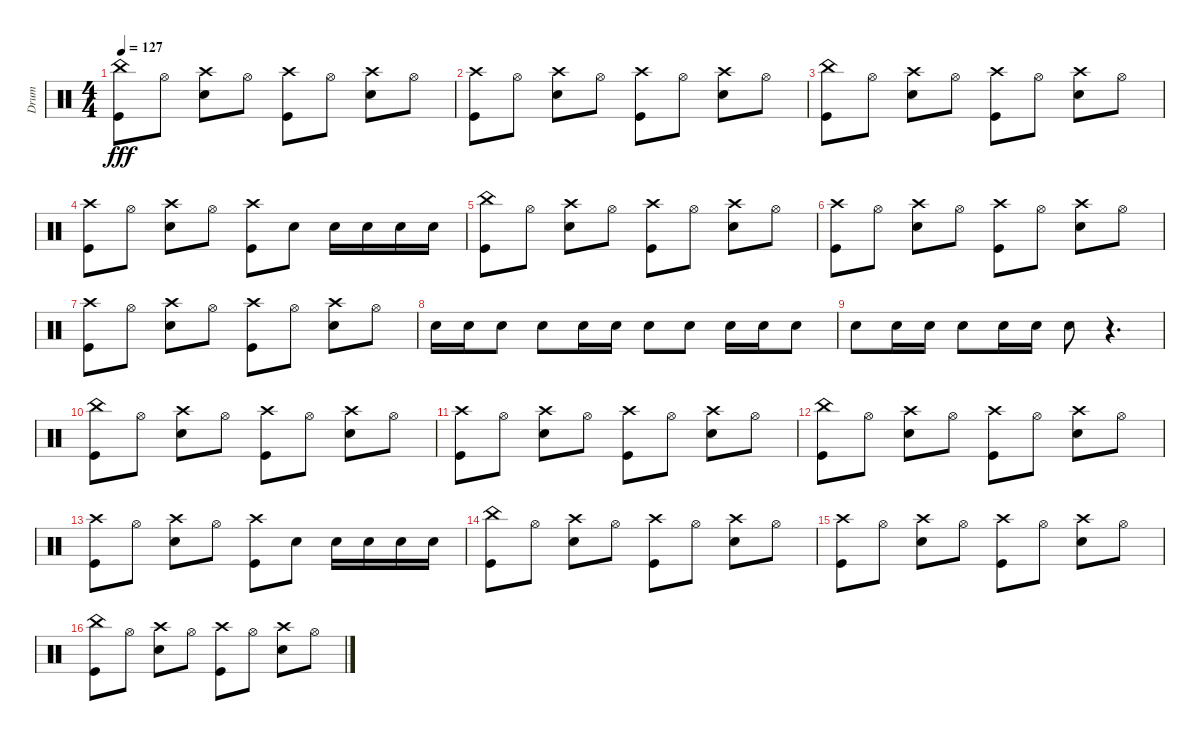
\track ("Drum" "Drum") {instrument percussion}
\staff {score}
\articulation defaults
\ts (4 4)
\tempo 127
\clef neutral
\ks c
("Kick (hit)" "China (hit)").8{dy fff} "Hi-Hat (open)".8 ("Crash high (hit)" "Electric Snare (hit)").8 "Hi-Hat (open)".8 ("Kick (hit)" "Crash high (hit)").8 "Hi-Hat (open)".8 ("Crash high (hit)" "Electric Snare (hit)").8 "Hi-Hat (open)".8 |
("Kick (hit)" "Crash high (hit)").8 "Hi-Hat (open)".8 ("Crash high (hit)" "Electric Snare (hit)").8 "Hi-Hat (open)".8 ("Kick (hit)" "Crash high (hit)").8 "Hi-Hat (open)".8 ("Crash high (hit)" "Electric Snare (hit)").8 "Hi-Hat (open)".8 |
("Kick (hit)" "China (hit)").8 "Hi-Hat (open)".8 ("Crash high (hit)" "Electric Snare (hit)").8 "Hi-Hat (open)".8 ("Kick (hit)" "Crash high (hit)").8 "Hi-Hat (open)".8 ("Crash high (hit)" "Electric Snare (hit)").8 "Hi-Hat (open)".8 |
("Kick (hit)" "Crash high (hit)").8 "Hi-Hat (open)".8 ("Crash high (hit)" "Electric Snare (hit)").8 "Hi-Hat (open)".8 ("Kick (hit)" "Crash high (hit)").8 "Electric Snare (hit)".8 "Electric Snare (hit)".16 "Electric Snare (hit)".16 "Electric Snare (hit)".16 "Electric Snare (hit)".16 |
("Kick (hit)" "China (hit)").8 "Hi-Hat (open)".8 ("Crash high (hit)" "Electric Snare (hit)").8 "Hi-Hat (open)".8 ("Kick (hit)" "Crash high (hit)").8 "Hi-Hat (open)".8 ("Crash high (hit)" "Electric Snare (hit)").8 "Hi-Hat (open)".8 |
("Kick (hit)" "Crash high (hit)").8 "Hi-Hat (open)".8 ("Crash high (hit)" "Electric Snare (hit)").8 "Hi-Hat (open)".8 ("Kick (hit)" "Crash high (hit)").8 "Hi-Hat (open)".8 ("Crash high (hit)" "Electric Snare (hit)").8 "Hi-Hat (open)".8 |
("Kick (hit)" "Crash high (hit)").8 "Hi-Hat (open)".8 ("Crash high (hit)" "Electric Snare (hit)").8 "Hi-Hat (open)".8 ("Kick (hit)" "Crash high (hit)").8 "Hi-Hat (open)".8 ("Crash high (hit)" "Electric Snare (hit)").8 "Hi-Hat (open)".8 |
"Electric Snare (hit)".16 "Electric Snare (hit)".16 "Electric Snare (hit)".8 "Electric Snare (hit)".8 "Electric Snare (hit)".16 "Electric Snare (hit)".16 "Electric Snare (hit)".8 "Electric Snare (hit)".8 "Electric Snare (hit)".16 "Electric Snare (hit)".16 "Electric Snare (hit)".8 |
"Electric Snare (hit)".8 "Electric Snare (hit)".16 "Electric Snare (hit)".16 "Electric Snare (hit)".8 "Electric Snare (hit)".16 "Electric Snare (hit)".16 "Electric Snare (hit)".8 r.4{d} |
("Kick (hit)" "China (hit)").8 "Hi-Hat (open)".8 ("Crash high (hit)" "Electric Snare (hit)").8 "Hi-Hat (open)".8 ("Kick (hit)" "Crash high (hit)").8 "Hi-Hat (open)".8 ("Crash high (hit)" "Electric Snare (hit)").8 "Hi-Hat (open)".8 |
("Kick (hit)" "Crash high (hit)").8 "Hi-Hat (open)".8 ("Crash high (hit)" "Electric Snare (hit)").8 "Hi-Hat (open)".8 ("Kick (hit)" "Crash high (hit)").8 "Hi-Hat (open)".8 ("Crash high (hit)" "Electric Snare (hit)").8 "Hi-Hat (open)".8 |
("Kick (hit)" "China (hit)").8 "Hi-Hat (open)".8 ("Crash high (hit)" "Electric Snare (hit)").8 "Hi-Hat (open)".8 ("Kick (hit)" "Crash high (hit)").8 "Hi-Hat (open)".8 ("Crash high (hit)" "Electric Snare (hit)").8 "Hi-Hat (open)".8 |
("Kick (hit)" "Crash high (hit)").8 "Hi-Hat (open)".8 ("Crash high (hit)" "Electric Snare (hit)").8 "Hi-Hat (open)".8 ("Kick (hit)" "Crash high (hit)").8 "Electric Snare (hit)".8 "Electric Snare (hit)".16 "Electric Snare (hit)".16 "Electric Snare (hit)".16 "Electric Snare (hit)".16 |
("Kick (hit)" "China (hit)").8 "Hi-Hat (open)".8 ("Crash high (hit)" "Electric Snare (hit)").8 "Hi-Hat (open)".8 ("Kick (hit)" "Crash high (hit)").8 "Hi-Hat (open)".8 ("Crash high (hit)" "Electric Snare (hit)").8 "Hi-Hat (open)".8 |
("Kick (hit)" "Crash high (hit)").8 "Hi-Hat (open)".8 ("Crash high (hit)" "Electric Snare (hit)").8 "Hi-Hat (open)".8 ("Kick (hit)" "Crash high (hit)").8 "Hi-Hat (open)".8 ("Crash high (hit)" "Electric Snare (hit)").8 "Hi-Hat (open)".8 |
("Kick (hit)" "China (hit)").8 "Hi-Hat (open)".8 ("Crash high (hit)" "Electric Snare (hit)").8 "Hi-Hat (open)".8 ("Kick (hit)" "Crash high (hit)").8 "Hi-Hat (open)".8 ("Crash high (hit)" "Electric Snare (hit)").8 "Hi-Hat (open)".8
